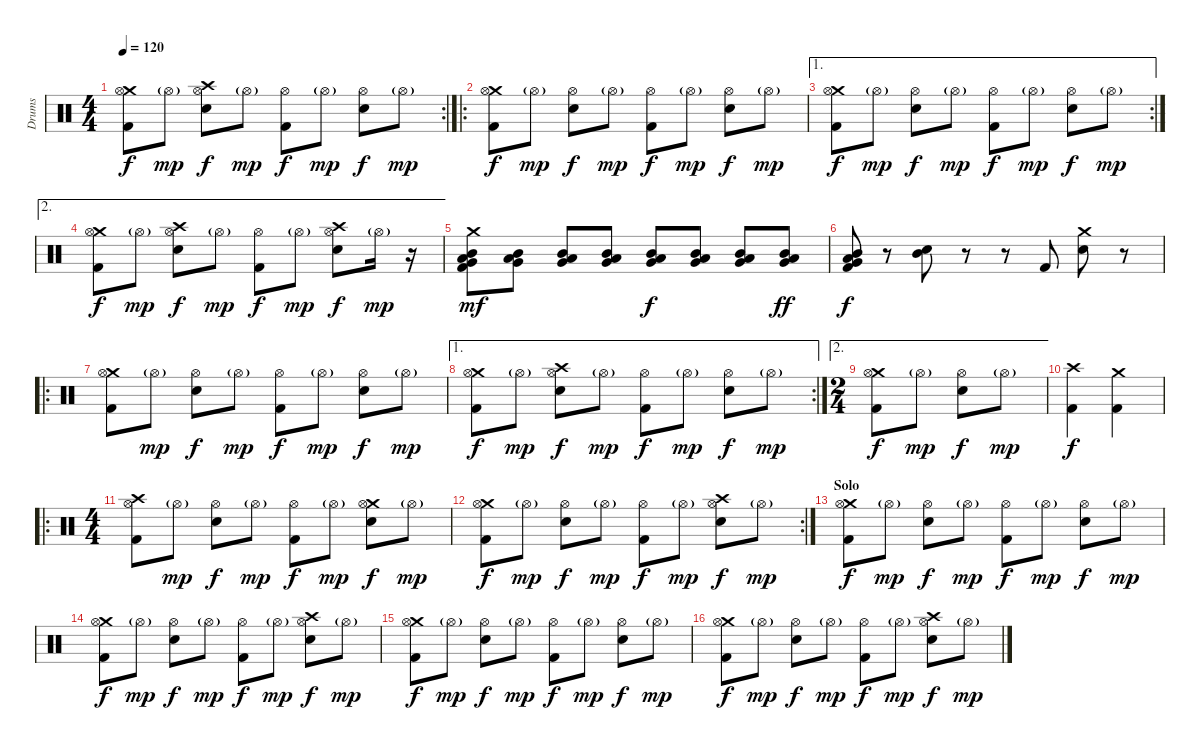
\track ("Drums" "Drums") {instrument percussion}
\staff {score}
\articulation defaults
\rc 2
\ts (4 4)
\tempo 120
\clef neutral
\ks c
("Crash medium (hit)" "Hi-Hat (open)" "Kick (hit) 2").8{dy f} "Hi-Hat (open)"{g}.8{dy mp} ("Crash high (hit)" "Hi-Hat (open)" "Electric Snare (hit)").8{dy f} "Hi-Hat (open)"{g}.8{dy mp} ("Hi-Hat (open)" "Kick (hit) 2").8{dy f} "Hi-Hat (open)"{g}.8{dy mp} ("Hi-Hat (open)" "Electric Snare (hit)").8{dy f} "Hi-Hat (open)"{g}.8{dy mp} |
\ro
("Crash medium (hit)" "Hi-Hat (open)" "Kick (hit) 2").8{dy f} "Hi-Hat (open)"{g}.8{dy mp} ("Hi-Hat (open)" "Electric Snare (hit)").8{dy f} "Hi-Hat (open)"{g}.8{dy mp} ("Hi-Hat (open)" "Kick (hit) 2").8{dy f} "Hi-Hat (open)"{g}.8{dy mp} ("Hi-Hat (open)" "Electric Snare (hit)").8{dy f} "Hi-Hat (open)"{g}.8{dy mp} |
\ae 1
\rc 2
("Crash medium (hit)" "Hi-Hat (open)" "Kick (hit) 2").8{dy f} "Hi-Hat (open)"{g}.8{dy mp} ("Hi-Hat (open)" "Electric Snare (hit)").8{dy f} "Hi-Hat (open)"{g}.8{dy mp} ("Hi-Hat (open)" "Kick (hit) 2").8{dy f} "Hi-Hat (open)"{g}.8{dy mp} ("Hi-Hat (open)" "Electric Snare (hit)").8{dy f} "Hi-Hat (open)"{g}.8{dy mp} |
\ae 2
("Crash medium (hit)" "Hi-Hat (open)" "Kick (hit) 2").8{dy f} "Hi-Hat (open)"{g}.8{dy mp} ("Crash high (hit)" "Hi-Hat (open)" "Electric Snare (hit)").8{dy f} "Hi-Hat (open)"{g}.8{dy mp} ("Hi-Hat (open)" "Kick (hit) 2").8{dy f} "Hi-Hat (open)"{g}.8{dy mp} ("Crash high (hit)" "Hi-Hat (open)" "Electric Snare (hit)").8{dy f} "Hi-Hat (open)"{g}.16{dy mp} r.16 |
("Crash medium (hit)" "Low Tom (hit)" "Mid Tom (hit)" "Very Low Tom (hit)" "Kick (hit) 2").8{dy mf} ("Low Tom (hit)" "Mid Tom (hit)" "Very Low Tom (hit)").8 ("Low Tom (hit)" "Mid Tom (hit)" "Very Low Tom (hit)").8 ("Low Tom (hit)" "Mid Tom (hit)" "Very Low Tom (hit)").8 ("Low Tom (hit)" "Mid Tom (hit)" "Very Low Tom (hit)").8{dy f} ("Low Tom (hit)" "Mid Tom (hit)" "Very Low Tom (hit)").8 ("Low Tom (hit)" "Mid Tom (hit)" "Very Low Tom (hit)").8 ("Low Tom (hit)" "Mid Tom (hit)" "Very Low Tom (hit)").8{dy ff} |
("Low Tom (hit)" "Mid Tom (hit)" "Very Low Tom (hit)" "Kick (hit) 2").8{dy f} r.8 ("Mid Tom (hit)" "Electric Snare (hit)").8 r.8 r.8 "Kick (hit) 2".8 ("Crash medium (hit)" "Electric Snare (hit)").8 r.8 |
\ro
("Crash medium (hit)" "Hi-Hat (open)" "Kick (hit) 2").8 "Hi-Hat (open)"{g}.8{dy mp} ("Hi-Hat (open)" "Electric Snare (hit)").8{dy f} "Hi-Hat (open)"{g}.8{dy mp} ("Hi-Hat (open)" "Kick (hit) 2").8{dy f} "Hi-Hat (open)"{g}.8{dy mp} ("Hi-Hat (open)" "Electric Snare (hit)").8{dy f} "Hi-Hat (open)"{g}.8{dy mp} |
\ae 1
\rc 2
("Crash medium (hit)" "Hi-Hat (open)" "Kick (hit) 2").8{dy f} "Hi-Hat (open)"{g}.8{dy mp} ("Crash high (hit)" "Hi-Hat (open)" "Electric Snare (hit)").8{dy f} "Hi-Hat (open)"{g}.8{dy mp} ("Hi-Hat (open)" "Kick (hit) 2").8{dy f} "Hi-Hat (open)"{g}.8{dy mp} ("Hi-Hat (open)" "Electric Snare (hit)").8{dy f} "Hi-Hat (open)"{g}.8{dy mp} |
\ae 2
\ts (2 4)
("Crash medium (hit)" "Hi-Hat (open)" "Kick (hit) 2").8{dy f} "Hi-Hat (open)"{g}.8{dy mp} ("Hi-Hat (open)" "Electric Snare (hit)").8{dy f} "Hi-Hat (open)"{g}.8{dy mp} |
("Crash high (hit)" "Kick (hit) 2").4{dy f} ("Crash medium (hit)" "Kick (hit) 2").4 |
\ro
\ts (4 4)
("Crash high (hit)" "Hi-Hat (open)" "Kick (hit) 2").8 "Hi-Hat (open)"{g}.8{dy mp} ("Hi-Hat (open)" "Electric Snare (hit)").8{dy f} "Hi-Hat (open)"{g}.8{dy mp} ("Hi-Hat (open)" "Kick (hit) 2").8{dy f} "Hi-Hat (open)"{g}.8{dy mp} ("Crash medium (hit)" "Hi-Hat (open)" "Electric Snare (hit)").8{dy f} "Hi-Hat (open)"{g}.8{dy mp} |
\rc 2
("Crash medium (hit)" "Hi-Hat (open)" "Kick (hit) 2").8{dy f} "Hi-Hat (open)"{g}.8{dy mp} ("Hi-Hat (open)" "Electric Snare (hit)").8{dy f} "Hi-Hat (open)"{g}.8{dy mp} ("Hi-Hat (open)" "Kick (hit) 2").8{dy f} "Hi-Hat (open)"{g}.8{dy mp} ("Crash high (hit)" "Hi-Hat (open)" "Electric Snare (hit)").8{dy f} "Hi-Hat (open)"{g}.8{dy mp} |
\section ("" "Solo")
("Crash medium (hit)" "Hi-Hat (open)" "Kick (hit) 2").8{dy f} "Hi-Hat (open)"{g}.8{dy mp} ("Hi-Hat (open)" "Electric Snare (hit)").8{dy f} "Hi-Hat (open)"{g}.8{dy mp} ("Hi-Hat (open)" "Kick (hit) 2").8{dy f} "Hi-Hat (open)"{g}.8{dy mp} ("Hi-Hat (open)" "Electric Snare (hit)").8{dy f} "Hi-Hat (open)"{g}.8{dy mp} |
("Crash medium (hit)" "Hi-Hat (open)" "Kick (hit) 2").8{dy f} "Hi-Hat (open)"{g}.8{dy mp} ("Hi-Hat (open)" "Electric Snare (hit)").8{dy f} "Hi-Hat (open)"{g}.8{dy mp} ("Hi-Hat (open)" "Kick (hit) 2").8{dy f} "Hi-Hat (open)"{g}.8{dy mp} ("Crash high (hit)" "Hi-Hat (open)" "Electric Snare (hit)").8{dy f} "Hi-Hat (open)"{g}.8{dy mp} |
("Crash medium (hit)" "Hi-Hat (open)" "Kick (hit) 2").8{dy f} "Hi-Hat (open)"{g}.8{dy mp} ("Hi-Hat (open)" "Electric Snare (hit)").8{dy f} "Hi-Hat (open)"{g}.8{dy mp} ("Hi-Hat (open)" "Kick (hit) 2").8{dy f} "Hi-Hat (open)"{g}.8{dy mp} ("Hi-Hat (open)" "Electric Snare (hit)").8{dy f} "Hi-Hat (open)"{g}.8{dy mp} |
("Crash medium (hit)" "Hi-Hat (open)" "Kick (hit) 2").8{dy f} "Hi-Hat (open)"{g}.8{dy mp} ("Hi-Hat (open)" "Electric Snare (hit)").8{dy f} "Hi-Hat (open)"{g}.8{dy mp} ("Hi-Hat (open)" "Kick (hit) 2").8{dy f} "Hi-Hat (open)"{g}.8{dy mp} ("Crash high (hit)" "Hi-Hat (open)" "Electric Snare (hit)").8{dy f} "Hi-Hat (open)"{g}.8{dy mp}
